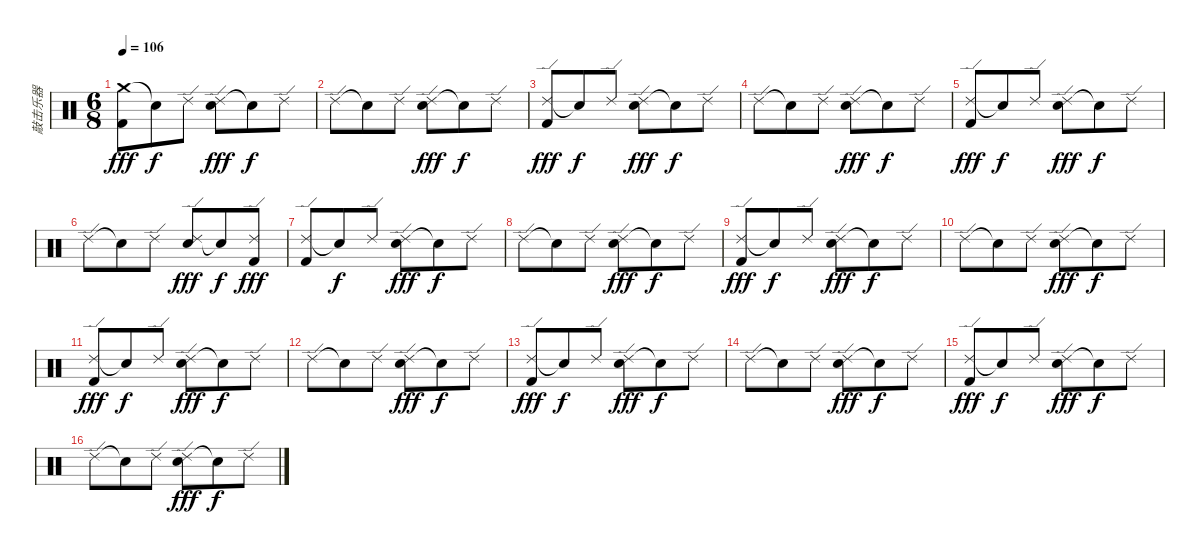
\track ("敲击乐器" "敲击乐器") {instrument percussion}
\staff {score}
\articulation defaults
\ts (6 8)
\tempo 106
\clef neutral
\ks c
("Crash medium (hit)" "Kick (hit) 2").8{dy fff} "Snare (hit)"{t}.8{dy f} "Ride (edge) 2".8 ("Ride (edge) 2" "Snare (hit) 2").8{dy fff} "Snare (hit)"{t}.8{dy f} "Ride (edge) 2".8 |
"Ride (edge) 2".8 "Snare (hit)"{t}.8 "Ride (edge) 2".8 ("Ride (edge) 2" "Snare (hit) 2").8{dy fff} "Snare (hit)"{t}.8{dy f} "Ride (edge) 2".8 |
("Ride (edge) 2" "Kick (hit) 2").8{dy fff} "Snare (hit)"{t}.8{dy f} "Ride (edge) 2".8 ("Ride (edge) 2" "Snare (hit) 2").8{dy fff} "Snare (hit)"{t}.8{dy f} "Ride (edge) 2".8 |
"Ride (edge) 2".8 "Snare (hit)"{t}.8 "Ride (edge) 2".8 ("Ride (edge) 2" "Snare (hit) 2").8{dy fff} "Snare (hit)"{t}.8{dy f} "Ride (edge) 2".8 |
("Ride (edge) 2" "Kick (hit) 2").8{dy fff} "Snare (hit)"{t}.8{dy f} "Ride (edge) 2".8 ("Ride (edge) 2" "Snare (hit) 2").8{dy fff} "Snare (hit)"{t}.8{dy f} "Ride (edge) 2".8 |
"Ride (edge) 2".8 "Snare (hit)"{t}.8 "Ride (edge) 2".8 ("Ride (edge) 2" "Snare (hit) 2").8{dy fff} "Snare (hit)"{t}.8{dy f} ("Ride (edge) 2" "Kick (hit) 2").8{dy fff} |
("Ride (edge) 2" "Kick (hit) 2").8 "Snare (hit)"{t}.8{dy f} "Ride (edge) 2".8 ("Ride (edge) 2" "Snare (hit) 2").8{dy fff} "Snare (hit)"{t}.8{dy f} "Ride (edge) 2".8 |
"Ride (edge) 2".8 "Snare (hit)"{t}.8 "Ride (edge) 2".8 ("Ride (edge) 2" "Snare (hit) 2").8{dy fff} "Snare (hit)"{t}.8{dy f} "Ride (edge) 2".8 |
("Ride (edge) 2" "Kick (hit) 2").8{dy fff} "Snare (hit)"{t}.8{dy f} "Ride (edge) 2".8 ("Ride (edge) 2" "Snare (hit) 2").8{dy fff} "Snare (hit)"{t}.8{dy f} "Ride (edge) 2".8 |
"Ride (edge) 2".8 "Snare (hit)"{t}.8 "Ride (edge) 2".8 ("Ride (edge) 2" "Snare (hit) 2").8{dy fff} "Snare (hit)"{t}.8{dy f} "Ride (edge) 2".8 |
("Ride (edge) 2" "Kick (hit) 2").8{dy fff} "Snare (hit)"{t}.8{dy f} "Ride (edge) 2".8 ("Ride (edge) 2" "Snare (hit) 2").8{dy fff} "Snare (hit)"{t}.8{dy f} "Ride (edge) 2".8 |
"Ride (edge) 2".8 "Snare (hit)"{t}.8 "Ride (edge) 2".8 ("Ride (edge) 2" "Snare (hit) 2").8{dy fff} "Snare (hit)"{t}.8{dy f} "Ride (edge) 2".8 |
("Ride (edge) 2" "Kick (hit) 2").8{dy fff} "Snare (hit)"{t}.8{dy f} "Ride (edge) 2".8 ("Ride (edge) 2" "Snare (hit) 2").8{dy fff} "Snare (hit)"{t}.8{dy f} "Ride (edge) 2".8 |
"Ride (edge) 2".8 "Snare (hit)"{t}.8 "Ride (edge) 2".8 ("Ride (edge) 2" "Snare (hit) 2").8{dy fff} "Snare (hit)"{t}.8{dy f} "Ride (edge) 2".8 |
("Ride (edge) 2" "Kick (hit) 2").8{dy fff} "Snare (hit)"{t}.8{dy f} "Ride (edge) 2".8 ("Ride (edge) 2" "Snare (hit) 2").8{dy fff} "Snare (hit)"{t}.8{dy f} "Ride (edge) 2".8 |
"Ride (edge) 2".8 "Snare (hit)"{t}.8 "Ride (edge) 2".8 ("Ride (edge) 2" "Snare (hit) 2").8{dy fff} "Snare (hit)"{t}.8{dy f} "Ride (edge) 2".8
